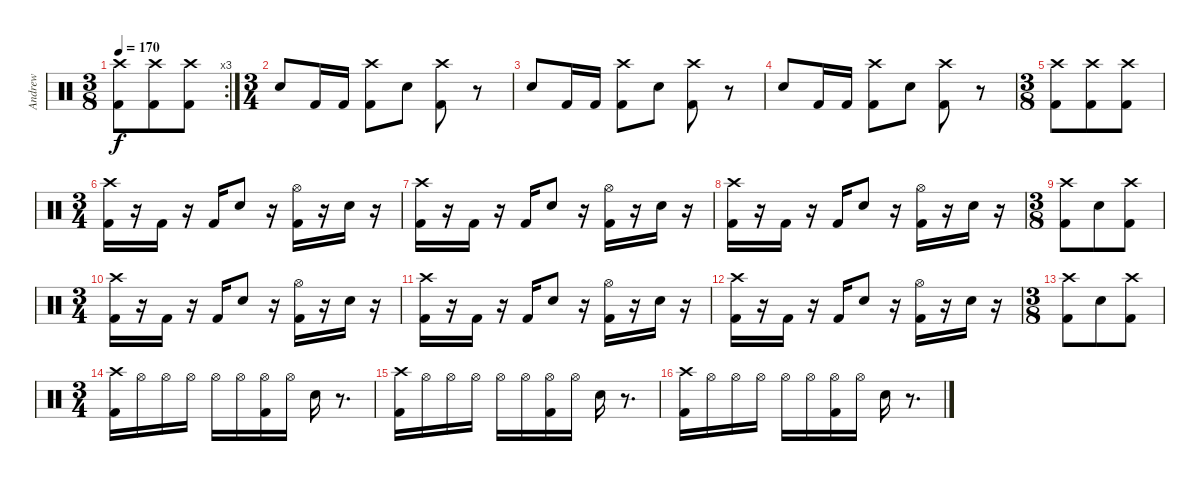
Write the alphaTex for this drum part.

\track ("Andrew" "Andrew") {instrument percussion}
\staff {score}
\articulation defaults
\rc 3
\ts (3 8)
\tempo 170
\clef neutral
\ks c
("Crash high (hit)" "Kick (hit) 2").8{dy f} ("Crash high (hit)" "Kick (hit) 2").8 ("Crash high (hit)" "Kick (hit) 2").8 |
\ts (3 4)
"Electric Snare (hit)".8 "Kick (hit) 2".16 "Kick (hit) 2".16 ("Crash high (hit)" "Kick (hit) 2").8 "Electric Snare (hit)".8 ("Crash high (hit)" "Kick (hit) 2").8 r.8 |
"Electric Snare (hit)".8 "Kick (hit) 2".16 "Kick (hit) 2".16 ("Crash high (hit)" "Kick (hit) 2").8 "Electric Snare (hit)".8 ("Crash high (hit)" "Kick (hit) 2").8 r.8 |
"Electric Snare (hit)".8 "Kick (hit) 2".16 "Kick (hit) 2".16 ("Crash high (hit)" "Kick (hit) 2").8 "Electric Snare (hit)".8 ("Crash high (hit)" "Kick (hit) 2").8 r.8 |
\ts (3 8)
("Crash high (hit)" "Kick (hit) 2").8 ("Crash high (hit)" "Kick (hit) 2").8 ("Crash high (hit)" "Kick (hit) 2").8 |
\ts (3 4)
("Kick (hit) 2" "Crash high (hit)").16 r.16 "Kick (hit) 2".16 r.16 "Kick (hit) 2".16 "Electric Snare (hit)".8 r.16 ("Hi-Hat (open)" "Kick (hit) 2").16 r.16 "Electric Snare (hit)".16 r.16 |
("Kick (hit) 2" "Crash high (hit)").16 r.16 "Kick (hit) 2".16 r.16 "Kick (hit) 2".16 "Electric Snare (hit)".8 r.16 ("Hi-Hat (open)" "Kick (hit) 2").16 r.16 "Electric Snare (hit)".16 r.16 |
("Kick (hit) 2" "Crash high (hit)").16 r.16 "Kick (hit) 2".16 r.16 "Kick (hit) 2".16 "Electric Snare (hit)".8 r.16 ("Hi-Hat (open)" "Kick (hit) 2").16 r.16 "Electric Snare (hit)".16 r.16 |
\ts (3 8)
("Crash high (hit)" "Kick (hit) 2").8 "Electric Snare (hit)".8 ("Crash high (hit)" "Kick (hit) 2").8 |
\ts (3 4)
("Kick (hit) 2" "Crash high (hit)").16 r.16 "Kick (hit) 2".16 r.16 "Kick (hit) 2".16 "Electric Snare (hit)".8 r.16 ("Hi-Hat (open)" "Kick (hit) 2").16 r.16 "Electric Snare (hit)".16 r.16 |
("Kick (hit) 2" "Crash high (hit)").16 r.16 "Kick (hit) 2".16 r.16 "Kick (hit) 2".16 "Electric Snare (hit)".8 r.16 ("Hi-Hat (open)" "Kick (hit) 2").16 r.16 "Electric Snare (hit)".16 r.16 |
("Kick (hit) 2" "Crash high (hit)").16 r.16 "Kick (hit) 2".16 r.16 "Kick (hit) 2".16 "Electric Snare (hit)".8 r.16 ("Hi-Hat (open)" "Kick (hit) 2").16 r.16 "Electric Snare (hit)".16 r.16 |
\ts (3 8)
("Crash high (hit)" "Kick (hit) 2").8 "Electric Snare (hit)".8 ("Crash high (hit)" "Kick (hit) 2").8 |
\ts (3 4)
("Kick (hit) 2" "Crash high (hit)").16 "Hi-Hat (open)".16 "Hi-Hat (open)".16 "Hi-Hat (open)".16 "Hi-Hat (open)".16 "Hi-Hat (open)".16 ("Hi-Hat (open)" "Kick (hit) 2").16 "Hi-Hat (open)".16 "Electric Snare (hit)".16 r.8{d} |
("Kick (hit) 2" "Crash high (hit)").16 "Hi-Hat (open)".16 "Hi-Hat (open)".16 "Hi-Hat (open)".16 "Hi-Hat (open)".16 "Hi-Hat (open)".16 ("Hi-Hat (open)" "Kick (hit) 2").16 "Hi-Hat (open)".16 "Electric Snare (hit)".16 r.8{d} |
("Kick (hit) 2" "Crash high (hit)").16 "Hi-Hat (open)".16 "Hi-Hat (open)".16 "Hi-Hat (open)".16 "Hi-Hat (open)".16 "Hi-Hat (open)".16 ("Hi-Hat (open)" "Kick (hit) 2").16 "Hi-Hat (open)".16 "Electric Snare (hit)".16 r.8{d}
